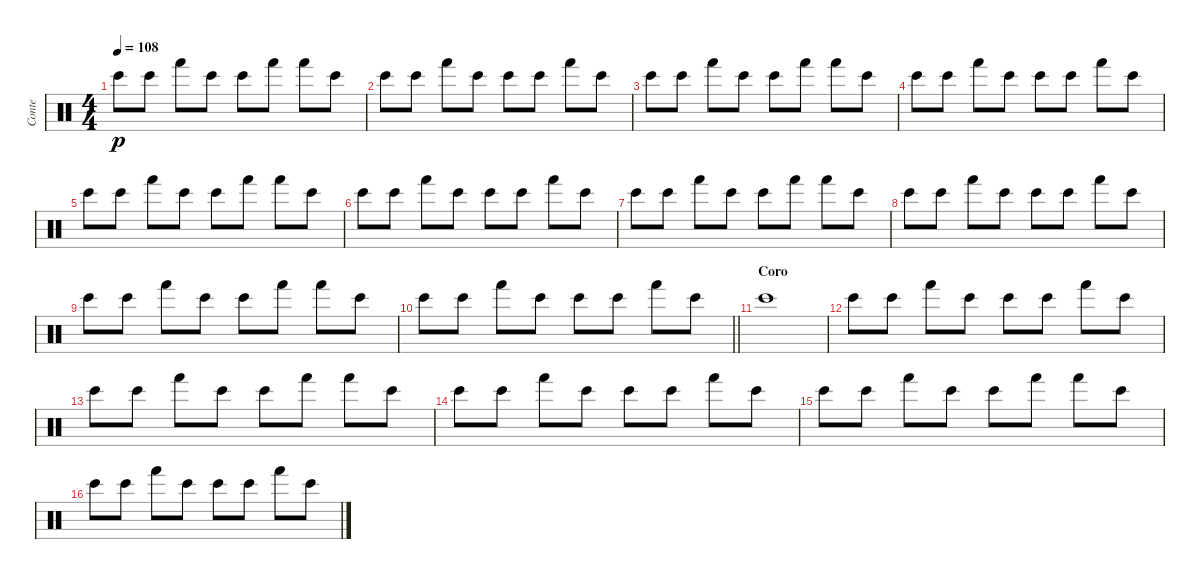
\track ("Conte" "Conte") {instrument percussion}
\staff {score}
\articulation defaults
\ts (4 4)
\tempo 108
\clef neutral
\ks c "Bongo High (hit)".8{dy p} "Bongo High (hit)".8 "Hand (hit)".8 "Bongo High (hit)".8 "Bongo High (hit)".8 "Hand (hit)".8 "Hand (hit)".8 "Bongo High (hit)".8
|
"Bongo High (hit)".8 "Bongo High (hit)".8 "Hand (hit)".8 "Bongo High (hit)".8 "Bongo High (hit)".8 "Bongo High (hit)".8 "Hand (hit)".8 "Bongo High (hit)".8 |
"Bongo High (hit)".8 "Bongo High (hit)".8 "Hand (hit)".8 "Bongo High (hit)".8 "Bongo High (hit)".8 "Hand (hit)".8 "Hand (hit)".8 "Bongo High (hit)".8 |
"Bongo High (hit)".8 "Bongo High (hit)".8 "Hand (hit)".8 "Bongo High (hit)".8 "Bongo High (hit)".8 "Bongo High (hit)".8 "Hand (hit)".8 "Bongo High (hit)".8 |
"Bongo High (hit)".8 "Bongo High (hit)".8 "Hand (hit)".8 "Bongo High (hit)".8 "Bongo High (hit)".8 "Hand (hit)".8 "Hand (hit)".8 "Bongo High (hit)".8 |
"Bongo High (hit)".8 "Bongo High (hit)".8 "Hand (hit)".8 "Bongo High (hit)".8 "Bongo High (hit)".8 "Bongo High (hit)".8 "Hand (hit)".8 "Bongo High (hit)".8 |
"Bongo High (hit)".8 "Bongo High (hit)".8 "Hand (hit)".8 "Bongo High (hit)".8 "Bongo High (hit)".8 "Hand (hit)".8 "Hand (hit)".8 "Bongo High (hit)".8 |
"Bongo High (hit)".8 "Bongo High (hit)".8 "Hand (hit)".8 "Bongo High (hit)".8 "Bongo High (hit)".8 "Bongo High (hit)".8 "Hand (hit)".8 "Bongo High (hit)".8 |
"Bongo High (hit)".8 "Bongo High (hit)".8 "Hand (hit)".8 "Bongo High (hit)".8 "Bongo High (hit)".8 "Hand (hit)".8 "Hand (hit)".8 "Bongo High (hit)".8 |
\barLineRight lightlight "Bongo High (hit)".8 "Bongo High (hit)".8 "Hand (hit)".8 "Bongo High (hit)".8 "Bongo High (hit)".8 "Bongo High (hit)".8 "Hand (hit)".8 "Bongo High (hit)".8
|
\section ("" "Coro")
"Bongo High (hit)".1 |
"Bongo High (hit)".8 "Bongo High (hit)".8 "Hand (hit)".8 "Bongo High (hit)".8 "Bongo High (hit)".8 "Bongo High (hit)".8 "Hand (hit)".8 "Bongo High (hit)".8 |
"Bongo High (hit)".8 "Bongo High (hit)".8 "Hand (hit)".8 "Bongo High (hit)".8 "Bongo High (hit)".8 "Hand (hit)".8 "Hand (hit)".8 "Bongo High (hit)".8 |
"Bongo High (hit)".8 "Bongo High (hit)".8 "Hand (hit)".8 "Bongo High (hit)".8 "Bongo High (hit)".8 "Bongo High (hit)".8 "Hand (hit)".8 "Bongo High (hit)".8 |
"Bongo High (hit)".8 "Bongo High (hit)".8 "Hand (hit)".8 "Bongo High (hit)".8 "Bongo High (hit)".8 "Hand (hit)".8 "Hand (hit)".8 "Bongo High (hit)".8 |
"Bongo High (hit)".8 "Bongo High (hit)".8 "Hand (hit)".8 "Bongo High (hit)".8 "Bongo High (hit)".8 "Bongo High (hit)".8 "Hand (hit)".8 "Bongo High (hit)".8
